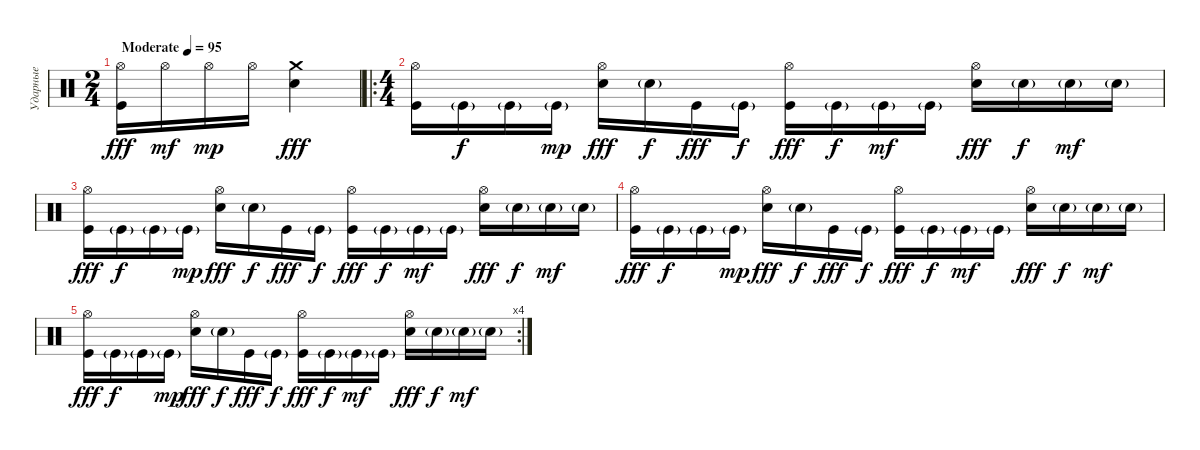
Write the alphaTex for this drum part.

\track ("Ударные" "Ударные") {instrument percussion}
\staff {score}
\articulation defaults
\ts (2 4)
\tempo (95 "Moderate")
\clef neutral
\ks c
("Hi-Hat (open)" "Kick (hit)").16{dy fff} "Hi-Hat (open)".16{dy mf} "Hi-Hat (open)".16{dy mp} "Hi-Hat (open)".16 ("Crash medium (hit)" "Electric Snare (hit)").4{dy fff} |
\ro
\ts (4 4)
("Hi-Hat (open)" "Kick (hit)").16 "Kick (hit)"{g}.16{dy f} "Kick (hit)"{g}.16 "Kick (hit)"{g}.16{dy mp} ("Hi-Hat (open)" "Electric Snare (hit)").16{dy fff} "Electric Snare (hit)"{g}.16{dy f} "Kick (hit)".16{dy fff} "Kick (hit)"{g}.16{dy f} ("Hi-Hat (open)" "Kick (hit)").16{dy fff} "Kick (hit)"{g}.16{dy f} "Kick (hit)"{g}.16{dy mf} "Kick (hit)"{g}.16 ("Hi-Hat (open)" "Electric Snare (hit)").16{dy fff} "Electric Snare (hit)"{g}.16{dy f} "Electric Snare (hit)"{g}.16{dy mf} "Electric Snare (hit)"{g}.16 |
("Hi-Hat (open)" "Kick (hit)").16{dy fff} "Kick (hit)"{g}.16{dy f} "Kick (hit)"{g}.16 "Kick (hit)"{g}.16{dy mp} ("Hi-Hat (open)" "Electric Snare (hit)").16{dy fff} "Electric Snare (hit)"{g}.16{dy f} "Kick (hit)".16{dy fff} "Kick (hit)"{g}.16{dy f} ("Hi-Hat (open)" "Kick (hit)").16{dy fff} "Kick (hit)"{g}.16{dy f} "Kick (hit)"{g}.16{dy mf} "Kick (hit)"{g}.16 ("Hi-Hat (open)" "Electric Snare (hit)").16{dy fff} "Electric Snare (hit)"{g}.16{dy f} "Electric Snare (hit)"{g}.16{dy mf} "Electric Snare (hit)"{g}.16 |
("Hi-Hat (open)" "Kick (hit)").16{dy fff} "Kick (hit)"{g}.16{dy f} "Kick (hit)"{g}.16 "Kick (hit)"{g}.16{dy mp} ("Hi-Hat (open)" "Electric Snare (hit)").16{dy fff} "Electric Snare (hit)"{g}.16{dy f} "Kick (hit)".16{dy fff} "Kick (hit)"{g}.16{dy f} ("Hi-Hat (open)" "Kick (hit)").16{dy fff} "Kick (hit)"{g}.16{dy f} "Kick (hit)"{g}.16{dy mf} "Kick (hit)"{g}.16 ("Hi-Hat (open)" "Electric Snare (hit)").16{dy fff} "Electric Snare (hit)"{g}.16{dy f} "Electric Snare (hit)"{g}.16{dy mf} "Electric Snare (hit)"{g}.16 |
\rc 4
("Hi-Hat (open)" "Kick (hit)").16{dy fff} "Kick (hit)"{g}.16{dy f} "Kick (hit)"{g}.16 "Kick (hit)"{g}.16{dy mp} ("Hi-Hat (open)" "Electric Snare (hit)").16{dy fff} "Electric Snare (hit)"{g}.16{dy f} "Kick (hit)".16{dy fff} "Kick (hit)"{g}.16{dy f} ("Hi-Hat (open)" "Kick (hit)").16{dy fff} "Kick (hit)"{g}.16{dy f} "Kick (hit)"{g}.16{dy mf} "Kick (hit)"{g}.16 ("Hi-Hat (open)" "Electric Snare (hit)").16{dy fff} "Electric Snare (hit)"{g}.16{dy f} "Electric Snare (hit)"{g}.16{dy mf} "Electric Snare (hit)"{g}.16
